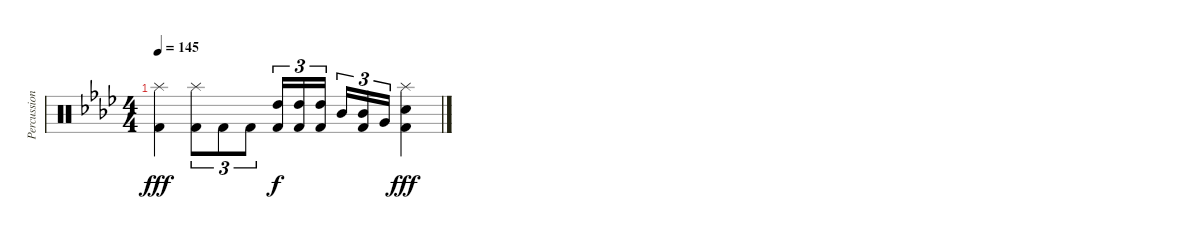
\track ("Percussion" "Percussion") {instrument percussion}
\staff {score}
\articulation defaults
\ts (4 4)
\tempo 145
\clef neutral
\ks ab
("Splash (hit)" "Kick (hit) 2").4{dy fff} ("Splash (hit)" "Kick (hit) 2").8{tu (3 2)} "Kick (hit) 2".8{tu (3 2)} "Kick (hit) 2".8{tu (3 2)} ("High Tom (hit)" "Kick (hit) 2").16{tu (3 2) dy f} ("High Tom (hit)" "Kick (hit) 2").16{tu (3 2)} ("High Tom (hit)" "Kick (hit) 2").16{tu (3 2) beam splitsecondary} "Mid Tom (hit)".16{tu (3 2)} ("Mid Tom (hit)" "Kick (hit) 2").16{tu (3 2)} "Very Low Tom (hit)".16{tu (3 2)} ("Splash (hit)" "Electric Snare (hit)" "Kick (hit) 2").4{dy fff}
